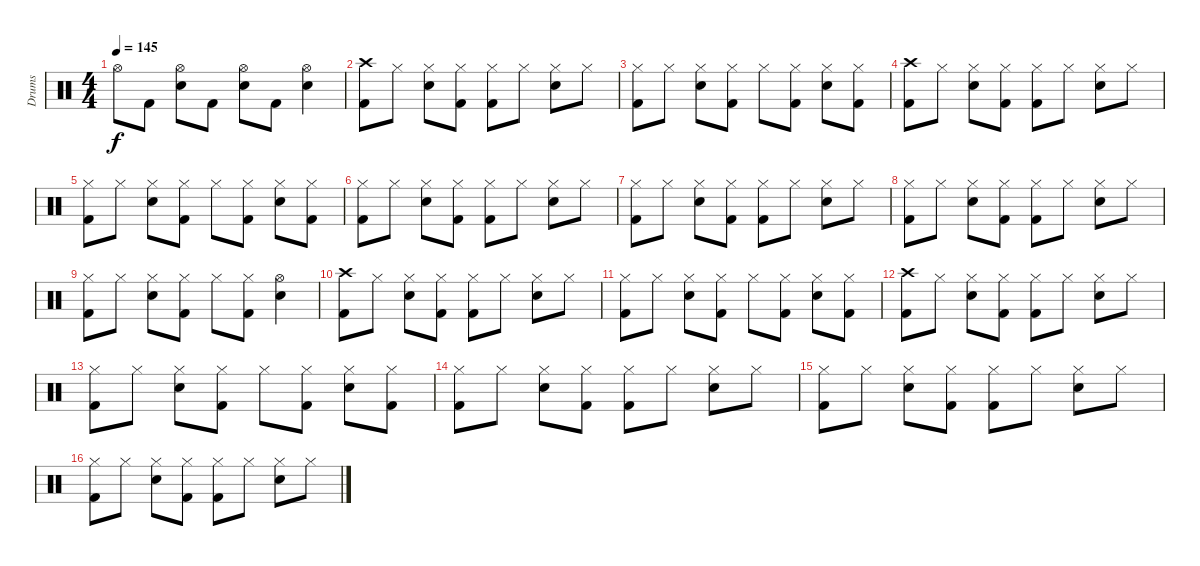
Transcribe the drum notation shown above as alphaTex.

\track ("Drums" "Drums") {instrument percussion}
\staff {score}
\articulation defaults
\ts (4 4)
\tempo 145
\clef neutral
\ks c "Hi-Hat (open)".8{dy f} "Kick (hit) 2".8
("Hi-Hat (open)" "Electric Snare (hit)").8 "Kick (hit) 2".8 ("Hi-Hat (open)" "Electric Snare (hit)").8 "Kick (hit) 2".8 ("Hi-Hat (open)" "Electric Snare (hit)").4 |
("Crash high (hit)" "Kick (hit) 2").8 "Hi-Hat (closed)".8 ("Hi-Hat (closed)" "Electric Snare (hit)").8 ("Hi-Hat (closed)" "Kick (hit) 2").8 ("Hi-Hat (closed)" "Kick (hit) 2").8 "Hi-Hat (closed)".8 ("Hi-Hat (closed)" "Electric Snare (hit)").8 "Hi-Hat (closed)".8 |
("Hi-Hat (closed)" "Kick (hit) 2").8 "Hi-Hat (closed)".8 ("Hi-Hat (closed)" "Electric Snare (hit)").8 ("Hi-Hat (closed)" "Kick (hit) 2").8 "Hi-Hat (closed)".8 ("Hi-Hat (closed)" "Kick (hit) 2").8 ("Hi-Hat (closed)" "Electric Snare (hit)").8 ("Hi-Hat (closed)" "Kick (hit) 2").8 |
("Crash high (hit)" "Kick (hit) 2").8 "Hi-Hat (closed)".8 ("Hi-Hat (closed)" "Electric Snare (hit)").8 ("Hi-Hat (closed)" "Kick (hit) 2").8 ("Hi-Hat (closed)" "Kick (hit) 2").8 "Hi-Hat (closed)".8 ("Hi-Hat (closed)" "Electric Snare (hit)").8 "Hi-Hat (closed)".8 |
("Hi-Hat (closed)" "Kick (hit) 2").8 "Hi-Hat (closed)".8 ("Hi-Hat (closed)" "Electric Snare (hit)").8 ("Hi-Hat (closed)" "Kick (hit) 2").8 "Hi-Hat (closed)".8 ("Hi-Hat (closed)" "Kick (hit) 2").8 ("Hi-Hat (closed)" "Electric Snare (hit)").8 ("Hi-Hat (closed)" "Kick (hit) 2").8 |
("Hi-Hat (closed)" "Kick (hit) 2").8 "Hi-Hat (closed)".8 ("Hi-Hat (closed)" "Electric Snare (hit)").8 ("Hi-Hat (closed)" "Kick (hit) 2").8 ("Hi-Hat (closed)" "Kick (hit) 2").8 "Hi-Hat (closed)".8 ("Hi-Hat (closed)" "Electric Snare (hit)").8 "Hi-Hat (closed)".8 |
("Hi-Hat (closed)" "Kick (hit) 2").8 "Hi-Hat (closed)".8 ("Hi-Hat (closed)" "Electric Snare (hit)").8 ("Hi-Hat (closed)" "Kick (hit) 2").8 ("Hi-Hat (closed)" "Kick (hit) 2").8 "Hi-Hat (closed)".8 ("Hi-Hat (closed)" "Electric Snare (hit)").8 "Hi-Hat (closed)".8 |
("Hi-Hat (closed)" "Kick (hit) 2").8 "Hi-Hat (closed)".8 ("Hi-Hat (closed)" "Electric Snare (hit)").8 ("Hi-Hat (closed)" "Kick (hit) 2").8 ("Hi-Hat (closed)" "Kick (hit) 2").8 "Hi-Hat (closed)".8 ("Hi-Hat (closed)" "Electric Snare (hit)").8 "Hi-Hat (closed)".8 |
("Hi-Hat (closed)" "Kick (hit) 2").8 "Hi-Hat (closed)".8 ("Hi-Hat (closed)" "Electric Snare (hit)").8 ("Hi-Hat (closed)" "Kick (hit) 2").8 "Hi-Hat (closed)".8 ("Hi-Hat (closed)" "Kick (hit) 2").8 ("Hi-Hat (open)" "Electric Snare (hit)").4 |
("Crash high (hit)" "Kick (hit) 2").8 "Hi-Hat (closed)".8 ("Hi-Hat (closed)" "Electric Snare (hit)").8 ("Hi-Hat (closed)" "Kick (hit) 2").8 ("Hi-Hat (closed)" "Kick (hit) 2").8 "Hi-Hat (closed)".8 ("Hi-Hat (closed)" "Electric Snare (hit)").8 "Hi-Hat (closed)".8 |
("Hi-Hat (closed)" "Kick (hit) 2").8 "Hi-Hat (closed)".8 ("Hi-Hat (closed)" "Electric Snare (hit)").8 ("Hi-Hat (closed)" "Kick (hit) 2").8 "Hi-Hat (closed)".8 ("Hi-Hat (closed)" "Kick (hit) 2").8 ("Hi-Hat (closed)" "Electric Snare (hit)").8 ("Hi-Hat (closed)" "Kick (hit) 2").8 |
("Crash high (hit)" "Kick (hit) 2").8 "Hi-Hat (closed)".8 ("Hi-Hat (closed)" "Electric Snare (hit)").8 ("Hi-Hat (closed)" "Kick (hit) 2").8 ("Hi-Hat (closed)" "Kick (hit) 2").8 "Hi-Hat (closed)".8 ("Hi-Hat (closed)" "Electric Snare (hit)").8 "Hi-Hat (closed)".8 |
("Hi-Hat (closed)" "Kick (hit) 2").8 "Hi-Hat (closed)".8 ("Hi-Hat (closed)" "Electric Snare (hit)").8 ("Hi-Hat (closed)" "Kick (hit) 2").8 "Hi-Hat (closed)".8 ("Hi-Hat (closed)" "Kick (hit) 2").8 ("Hi-Hat (closed)" "Electric Snare (hit)").8 ("Hi-Hat (closed)" "Kick (hit) 2").8 |
("Hi-Hat (closed)" "Kick (hit) 2").8 "Hi-Hat (closed)".8 ("Hi-Hat (closed)" "Electric Snare (hit)").8 ("Hi-Hat (closed)" "Kick (hit) 2").8 ("Hi-Hat (closed)" "Kick (hit) 2").8 "Hi-Hat (closed)".8 ("Hi-Hat (closed)" "Electric Snare (hit)").8 "Hi-Hat (closed)".8 |
("Hi-Hat (closed)" "Kick (hit) 2").8 "Hi-Hat (closed)".8 ("Hi-Hat (closed)" "Electric Snare (hit)").8 ("Hi-Hat (closed)" "Kick (hit) 2").8 ("Hi-Hat (closed)" "Kick (hit) 2").8 "Hi-Hat (closed)".8 ("Hi-Hat (closed)" "Electric Snare (hit)").8 "Hi-Hat (closed)".8 |
("Hi-Hat (closed)" "Kick (hit) 2").8 "Hi-Hat (closed)".8 ("Hi-Hat (closed)" "Electric Snare (hit)").8 ("Hi-Hat (closed)" "Kick (hit) 2").8 ("Hi-Hat (closed)" "Kick (hit) 2").8 "Hi-Hat (closed)".8 ("Hi-Hat (closed)" "Electric Snare (hit)").8 "Hi-Hat (closed)".8
